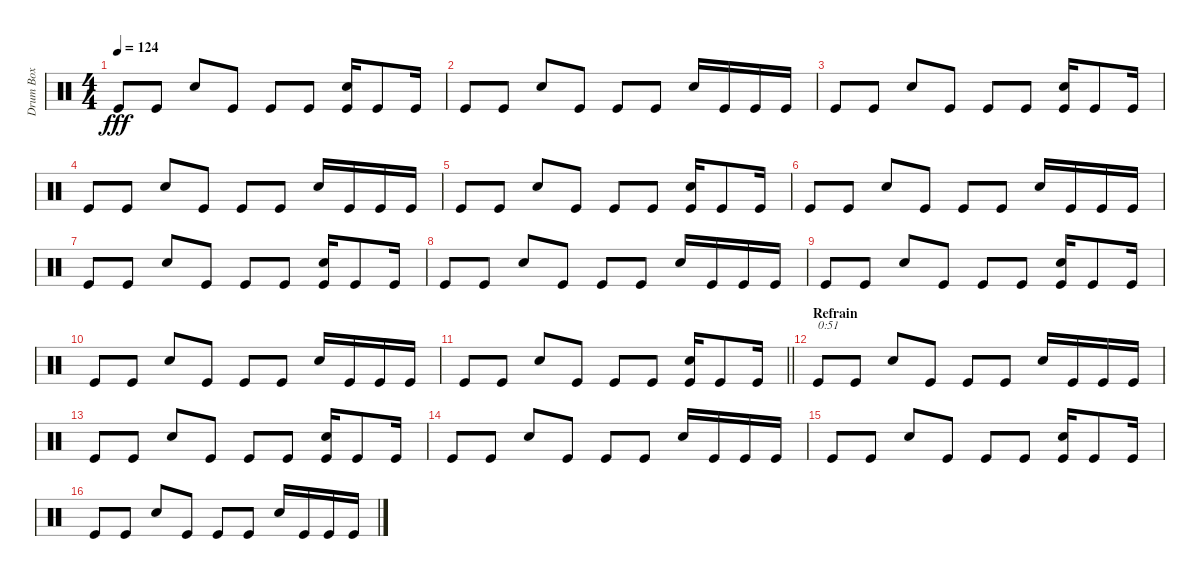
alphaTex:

\track ("Drum Box" "Drum Box") {instrument percussion}
\staff {score}
\articulation defaults
\ts (4 4)
\tempo 124
\clef neutral
\ks c "Kick (hit)".8{dy fff} "Kick (hit)".8 "Snare (hit) 2".8 "Kick (hit)".8 "Kick (hit)".8 "Kick (hit)".8
("Snare (hit) 2" "Kick (hit)").16 "Kick (hit)".8 "Kick (hit)".16 |
"Kick (hit)".8 "Kick (hit)".8 "Snare (hit) 2".8 "Kick (hit)".8 "Kick (hit)".8 "Kick (hit)".8 "Snare (hit) 2".16 "Kick (hit)".16 "Kick (hit)".16 "Kick (hit)".16 |
"Kick (hit)".8 "Kick (hit)".8 "Snare (hit) 2".8 "Kick (hit)".8 "Kick (hit)".8 "Kick (hit)".8 ("Snare (hit) 2" "Kick (hit)").16 "Kick (hit)".8 "Kick (hit)".16 |
"Kick (hit)".8 "Kick (hit)".8 "Snare (hit) 2".8 "Kick (hit)".8 "Kick (hit)".8 "Kick (hit)".8 "Snare (hit) 2".16 "Kick (hit)".16 "Kick (hit)".16 "Kick (hit)".16 |
"Kick (hit)".8 "Kick (hit)".8 "Snare (hit) 2".8 "Kick (hit)".8 "Kick (hit)".8 "Kick (hit)".8 ("Snare (hit) 2" "Kick (hit)").16 "Kick (hit)".8 "Kick (hit)".16 |
"Kick (hit)".8 "Kick (hit)".8 "Snare (hit) 2".8 "Kick (hit)".8 "Kick (hit)".8 "Kick (hit)".8 "Snare (hit) 2".16 "Kick (hit)".16 "Kick (hit)".16 "Kick (hit)".16 |
"Kick (hit)".8 "Kick (hit)".8 "Snare (hit) 2".8 "Kick (hit)".8 "Kick (hit)".8 "Kick (hit)".8 ("Snare (hit) 2" "Kick (hit)").16 "Kick (hit)".8 "Kick (hit)".16 |
"Kick (hit)".8 "Kick (hit)".8 "Snare (hit) 2".8 "Kick (hit)".8 "Kick (hit)".8 "Kick (hit)".8 "Snare (hit) 2".16 "Kick (hit)".16 "Kick (hit)".16 "Kick (hit)".16 |
"Kick (hit)".8 "Kick (hit)".8 "Snare (hit) 2".8 "Kick (hit)".8 "Kick (hit)".8 "Kick (hit)".8 ("Snare (hit) 2" "Kick (hit)").16 "Kick (hit)".8 "Kick (hit)".16 |
"Kick (hit)".8 "Kick (hit)".8 "Snare (hit) 2".8 "Kick (hit)".8 "Kick (hit)".8 "Kick (hit)".8 "Snare (hit) 2".16 "Kick (hit)".16 "Kick (hit)".16 "Kick (hit)".16 |
\barLineRight lightlight "Kick (hit)".8 "Kick (hit)".8 "Snare (hit) 2".8 "Kick (hit)".8 "Kick (hit)".8 "Kick (hit)".8
("Snare (hit) 2" "Kick (hit)").16 "Kick (hit)".8 "Kick (hit)".16 |
\section ("" "Refrain")
"Kick (hit)".8{txt "0:51"} "Kick (hit)".8 "Snare (hit) 2".8 "Kick (hit)".8 "Kick (hit)".8 "Kick (hit)".8 "Snare (hit) 2".16 "Kick (hit)".16 "Kick (hit)".16 "Kick (hit)".16 |
"Kick (hit)".8 "Kick (hit)".8 "Snare (hit) 2".8 "Kick (hit)".8 "Kick (hit)".8 "Kick (hit)".8 ("Snare (hit) 2" "Kick (hit)").16 "Kick (hit)".8 "Kick (hit)".16 |
"Kick (hit)".8 "Kick (hit)".8 "Snare (hit) 2".8 "Kick (hit)".8 "Kick (hit)".8 "Kick (hit)".8 "Snare (hit) 2".16 "Kick (hit)".16 "Kick (hit)".16 "Kick (hit)".16 |
"Kick (hit)".8 "Kick (hit)".8 "Snare (hit) 2".8 "Kick (hit)".8 "Kick (hit)".8 "Kick (hit)".8 ("Snare (hit) 2" "Kick (hit)").16 "Kick (hit)".8 "Kick (hit)".16 |
"Kick (hit)".8 "Kick (hit)".8 "Snare (hit) 2".8 "Kick (hit)".8 "Kick (hit)".8 "Kick (hit)".8 "Snare (hit) 2".16 "Kick (hit)".16 "Kick (hit)".16 "Kick (hit)".16
